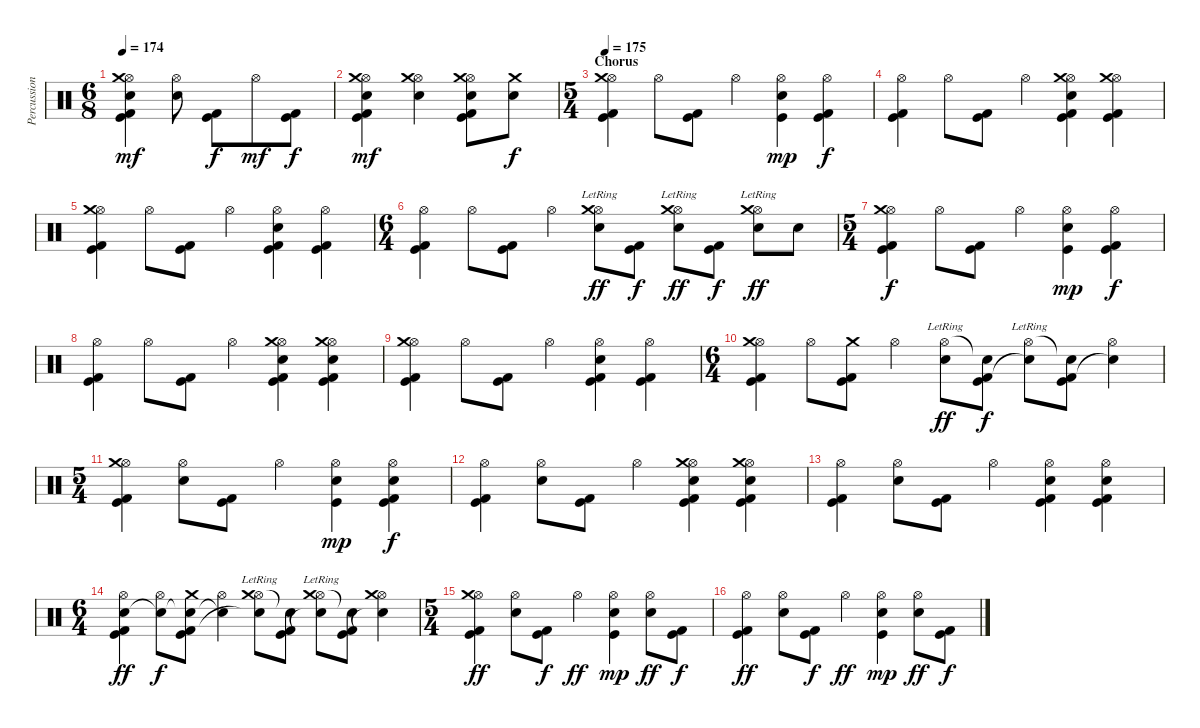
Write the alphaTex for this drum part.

\track ("Percussion" "Percussion") {instrument percussion}
\staff {score}
\articulation defaults
\ts (6 8)
\tempo 174
\clef neutral
\ks c
("Hi-Hat (open)" "Crash medium (hit)" "Electric Snare (hit)" "Kick (hit) 2" "Kick (hit)").4{dy mf} ("Hi-Hat (open)" "Electric Snare (hit)").8 ("Kick (hit) 2" "Kick (hit)").8{dy f} "Hi-Hat (open)".8{dy mf} ("Kick (hit) 2" "Kick (hit)").8{dy f} |
("Hi-Hat (open)" "Crash medium (hit)" "Electric Snare (hit)" "Kick (hit) 2" "Kick (hit)").4{dy mf} ("Hi-Hat (open)" "Crash medium (hit)" "Electric Snare (hit)").4 ("Hi-Hat (open)" "Crash medium (hit)" "Electric Snare (hit)" "Kick (hit) 2" "Kick (hit)").8 ("Crash medium (hit)" "Snare (hit) 2").8{dy f} |
\ts (5 4)
\section ("" "Chorus")
\tempo 175
("Hi-Hat (open)" "Crash medium (hit)" "Kick (hit) 2" "Kick (hit)").4 "Hi-Hat (open)".8 ("Kick (hit) 2" "Kick (hit)").8 "Hi-Hat (open)".4 ("Hi-Hat (open)" "Electric Snare (hit)" "Kick (hit)").4{dy mp} ("Hi-Hat (open)" "Kick (hit) 2" "Kick (hit)").4{dy f} |
("Hi-Hat (open)" "Kick (hit) 2" "Kick (hit)").4 "Hi-Hat (open)".8 ("Kick (hit) 2" "Kick (hit)").8 "Hi-Hat (open)".4 ("Hi-Hat (open)" "Crash medium (hit)" "Electric Snare (hit)" "Kick (hit) 2" "Kick (hit)").4 ("Hi-Hat (open)" "Crash medium (hit)" "Kick (hit) 2" "Kick (hit)").4 |
("Hi-Hat (open)" "Crash medium (hit)" "Kick (hit) 2" "Kick (hit)").4 "Hi-Hat (open)".8 ("Kick (hit) 2" "Kick (hit)").8 "Hi-Hat (open)".4 ("Hi-Hat (open)" "Electric Snare (hit)" "Kick (hit) 2" "Kick (hit)").4 ("Hi-Hat (open)" "Kick (hit) 2" "Kick (hit)").4 |
\ts (6 4)
("Hi-Hat (open)" "Kick (hit) 2" "Kick (hit)").4 "Hi-Hat (open)".8 ("Kick (hit) 2" "Kick (hit)").8 "Hi-Hat (open)".4 ("Hi-Hat (open)"{lr} "Crash medium (hit)"{lr} "Electric Snare (hit)"{lr}).8{dy ff} ("Kick (hit) 2" "Kick (hit)").8{dy f} ("Hi-Hat (open)"{lr} "Crash medium (hit)"{lr} "Electric Snare (hit)"{lr}).8{dy ff} ("Kick (hit) 2" "Kick (hit)").8{dy f} ("Hi-Hat (open)"{lr} "Crash medium (hit)"{lr} "Electric Snare (hit)").8{dy ff} "Electric Snare (hit)".8 |
\ts (5 4)
("Hi-Hat (open)" "Crash medium (hit)" "Kick (hit) 2" "Kick (hit)").4{dy f} "Hi-Hat (open)".8 ("Kick (hit) 2" "Kick (hit)").8 "Hi-Hat (open)".4 ("Hi-Hat (open)" "Electric Snare (hit)" "Kick (hit)").4{dy mp} ("Hi-Hat (open)" "Kick (hit) 2" "Kick (hit)").4{dy f} |
("Hi-Hat (open)" "Kick (hit) 2" "Kick (hit)").4 "Hi-Hat (open)".8 ("Kick (hit) 2" "Kick (hit)").8 "Hi-Hat (open)".4 ("Hi-Hat (open)" "Crash medium (hit)" "Electric Snare (hit)" "Kick (hit) 2" "Kick (hit)").4 ("Hi-Hat (open)" "Crash medium (hit)" "Electric Snare (hit)" "Kick (hit) 2" "Kick (hit)").4 |
("Hi-Hat (open)" "Crash medium (hit)" "Kick (hit) 2" "Kick (hit)").4 "Hi-Hat (open)".8 ("Kick (hit) 2" "Kick (hit)").8 "Hi-Hat (open)".4 ("Hi-Hat (open)" "Electric Snare (hit)" "Kick (hit) 2" "Kick (hit)").4 ("Hi-Hat (open)" "Kick (hit) 2" "Kick (hit)").4 |
\ts (6 4)
("Hi-Hat (open)" "Crash medium (hit)" "Kick (hit) 2" "Kick (hit)").4 "Hi-Hat (open)".8 ("Crash medium (hit)" "Kick (hit) 2" "Kick (hit)").8 "Hi-Hat (open)".4 ("Hi-Hat (open)"{lr} "Electric Snare (hit)"{tr (40 16)}).8{dy ff} ("Snare (hit)"{t} "Kick (hit) 2" "Kick (hit)").8{dy f} ("Hi-Hat (open)"{lr} "Electric Snare (hit)"{t}).8 ("Snare (hit)"{t} "Kick (hit) 2" "Kick (hit)").8 ("Hi-Hat (open)" "Electric Snare (hit)"{t}).4 |
\ts (5 4)
("Hi-Hat (open)" "Crash medium (hit)" "Kick (hit) 2" "Kick (hit)").4 ("Hi-Hat (open)" "Electric Snare (hit)").8 ("Kick (hit) 2" "Kick (hit)").8 "Hi-Hat (open)".4 ("Hi-Hat (open)" "Electric Snare (hit)" "Kick (hit)").4{dy mp} ("Hi-Hat (open)" "Electric Snare (hit)" "Kick (hit) 2" "Kick (hit)").4{dy f} |
("Hi-Hat (open)" "Kick (hit) 2" "Kick (hit)").4 ("Hi-Hat (open)" "Electric Snare (hit)").8 ("Kick (hit) 2" "Kick (hit)").8 "Hi-Hat (open)".4 ("Hi-Hat (open)" "Crash medium (hit)" "Electric Snare (hit)" "Kick (hit) 2" "Kick (hit)").4 ("Hi-Hat (open)" "Crash medium (hit)" "Electric Snare (hit)" "Kick (hit) 2" "Kick (hit)").4 |
("Hi-Hat (open)" "Kick (hit) 2" "Kick (hit)").4 ("Hi-Hat (open)" "Electric Snare (hit)").8 ("Kick (hit) 2" "Kick (hit)").8 "Hi-Hat (open)".4 ("Hi-Hat (open)" "Electric Snare (hit)" "Kick (hit) 2" "Kick (hit)").4 ("Hi-Hat (open)" "Electric Snare (hit)" "Kick (hit) 2" "Kick (hit)").4 |
\ts (6 4)
("Hi-Hat (open)" "Electric Snare (hit)"{tr (40 16)} "Kick (hit) 2" "Kick (hit)").4{dy ff} ("Hi-Hat (open)" "Snare (hit)"{t}).8{dy f} ("Crash medium (hit)" "Snare (hit)"{t} "Kick (hit) 2" "Kick (hit)").8 ("Hi-Hat (open)" "Snare (hit)"{t}).4 ("Hi-Hat (open)"{lr} "Crash medium (hit)"{lr} "Electric Snare (hit)"{t}).8 ("Snare (hit)"{t} "Kick (hit) 2" "Kick (hit)").8 ("Hi-Hat (open)"{lr} "Crash medium (hit)"{lr} "Electric Snare (hit)"{t}).8 ("Snare (hit)"{t} "Kick (hit) 2" "Kick (hit)").8 ("Hi-Hat (open)" "Crash medium (hit)" "Electric Snare (hit)"{t}).4 |
\ts (5 4)
("Hi-Hat (open)" "Crash medium (hit)" "Kick (hit) 2" "Kick (hit)").4{dy ff} ("Hi-Hat (open)" "Electric Snare (hit)").8 ("Kick (hit) 2" "Kick (hit)").8{dy f} "Hi-Hat (open)".4{dy ff} ("Hi-Hat (open)" "Electric Snare (hit)" "Kick (hit)").4{dy mp} ("Hi-Hat (open)" "Electric Snare (hit)").8{dy ff} ("Kick (hit) 2" "Kick (hit)").8{dy f} |
("Hi-Hat (open)" "Kick (hit) 2" "Kick (hit)").4{dy ff} ("Hi-Hat (open)" "Electric Snare (hit)").8 ("Kick (hit) 2" "Kick (hit)").8{dy f} "Hi-Hat (open)".4{dy ff} ("Hi-Hat (open)" "Electric Snare (hit)" "Kick (hit)").4{dy mp} ("Hi-Hat (open)" "Electric Snare (hit)").8{dy ff} ("Kick (hit) 2" "Kick (hit)").8{dy f}
